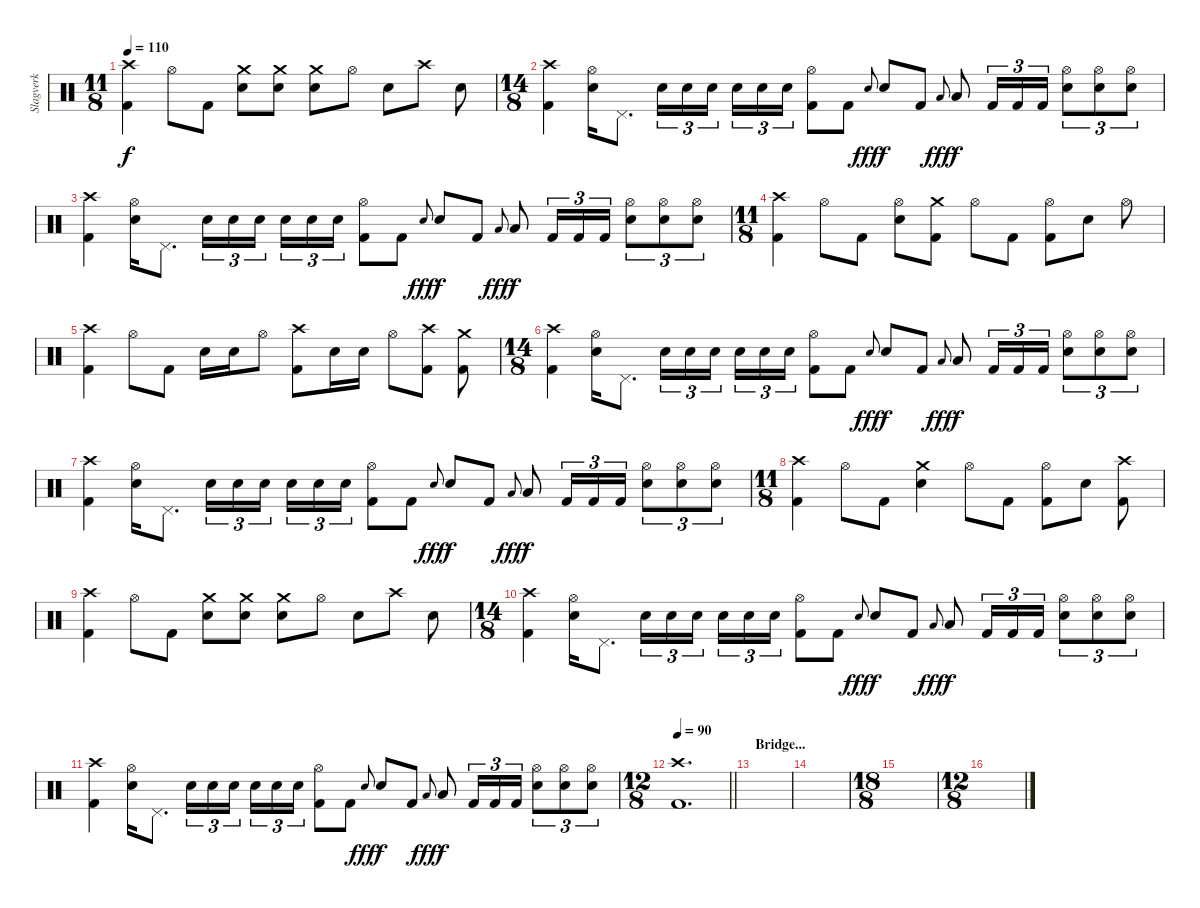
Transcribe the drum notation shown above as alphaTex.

\track ("Slagverk" "Slagverk") {instrument percussion}
\staff {score}
\articulation defaults
\ts (11 8)
\tempo 110
\clef neutral
\ks c
("Kick (hit) 2" "Crash high (hit)").4{dy f} "Hi-Hat (open)".8 "Kick (hit) 2".8 ("Crash medium (hit)" "Snare (hit) 2").8 ("Crash medium (hit)" "Snare (hit) 2").8 ("Crash medium (hit)" "Snare (hit) 2").8 "Hi-Hat (open)".8 "Snare (hit) 2".8 "Crash high (hit)".8 "Snare (hit) 2".8 |
\ts (14 8)
("Crash high (hit)" "Kick (hit) 2").4 ("Snare (hit) 2" "Hi-Hat (open)").16 "Pedal Hi-Hat (hit)".8{d} "Snare (hit) 2".16{tu (3 2)} "Snare (hit) 2".16{tu (3 2)} "Snare (hit) 2".16{tu (3 2)} "Snare (hit) 2".16{tu (3 2)} "Snare (hit) 2".16{tu (3 2)} "Snare (hit) 2".16{tu (3 2)} ("Hi-Hat (open)" "Kick (hit) 2").8 "Kick (hit) 2".8 "Snare (hit) 2".8{gr onbeat dy fff} "Snare (hit) 2".8{dy f} "Kick (hit) 2".8 "Low Tom (hit)".8{gr onbeat dy fff} "Low Tom (hit)".8{dy f} "Kick (hit) 2".16{tu (3 2)} "Kick (hit) 2".16{tu (3 2)} "Kick (hit) 2".16{tu (3 2)} ("Snare (hit) 2" "Hi-Hat (open)").8{tu (3 2)} ("Snare (hit) 2" "Hi-Hat (open)").8{tu (3 2)} ("Snare (hit) 2" "Hi-Hat (open)").8{tu (3 2)} |
("Crash high (hit)" "Kick (hit) 2").4 ("Snare (hit) 2" "Hi-Hat (open)").16 "Pedal Hi-Hat (hit)".8{d} "Snare (hit) 2".16{tu (3 2)} "Snare (hit) 2".16{tu (3 2)} "Snare (hit) 2".16{tu (3 2)} "Snare (hit) 2".16{tu (3 2)} "Snare (hit) 2".16{tu (3 2)} "Snare (hit) 2".16{tu (3 2)} ("Hi-Hat (open)" "Kick (hit) 2").8 "Kick (hit) 2".8 "Snare (hit) 2".8{gr onbeat dy fff} "Snare (hit) 2".8{dy f} "Kick (hit) 2".8 "Low Tom (hit)".8{gr onbeat dy fff} "Low Tom (hit)".8{dy f} "Kick (hit) 2".16{tu (3 2)} "Kick (hit) 2".16{tu (3 2)} "Kick (hit) 2".16{tu (3 2)} ("Snare (hit) 2" "Hi-Hat (open)").8{tu (3 2)} ("Snare (hit) 2" "Hi-Hat (open)").8{tu (3 2)} ("Snare (hit) 2" "Hi-Hat (open)").8{tu (3 2)} |
\ts (11 8)
("Kick (hit) 2" "Crash high (hit)").4 "Hi-Hat (open)".8 "Kick (hit) 2".8 ("Hi-Hat (open)" "Snare (hit) 2").8 ("Crash medium (hit)" "Kick (hit) 2").8 "Hi-Hat (open)".8 "Kick (hit) 2".8 ("Kick (hit) 2" "Hi-Hat (open)").8 "Snare (hit) 2".8 "Hi-Hat (open)".8 |
("Kick (hit) 2" "Crash high (hit)").4 "Hi-Hat (open)".8 "Kick (hit) 2".8 "Snare (hit) 2".16 "Snare (hit) 2".16 "Hi-Hat (open)".8 ("Crash high (hit)" "Kick (hit) 2").8 "Snare (hit) 2".16 "Snare (hit) 2".16 "Hi-Hat (open)".8 ("Kick (hit) 2" "Crash high (hit)").8 ("Kick (hit) 2" "Crash medium (hit)").8 |
\ts (14 8)
("Crash high (hit)" "Kick (hit) 2").4 ("Snare (hit) 2" "Hi-Hat (open)").16 "Pedal Hi-Hat (hit)".8{d} "Snare (hit) 2".16{tu (3 2)} "Snare (hit) 2".16{tu (3 2)} "Snare (hit) 2".16{tu (3 2)} "Snare (hit) 2".16{tu (3 2)} "Snare (hit) 2".16{tu (3 2)} "Snare (hit) 2".16{tu (3 2)} ("Hi-Hat (open)" "Kick (hit) 2").8 "Kick (hit) 2".8 "Snare (hit) 2".8{gr onbeat dy fff} "Snare (hit) 2".8{dy f} "Kick (hit) 2".8 "Low Tom (hit)".8{gr onbeat dy fff} "Low Tom (hit)".8{dy f} "Kick (hit) 2".16{tu (3 2)} "Kick (hit) 2".16{tu (3 2)} "Kick (hit) 2".16{tu (3 2)} ("Snare (hit) 2" "Hi-Hat (open)").8{tu (3 2)} ("Snare (hit) 2" "Hi-Hat (open)").8{tu (3 2)} ("Snare (hit) 2" "Hi-Hat (open)").8{tu (3 2)} |
("Crash high (hit)" "Kick (hit) 2").4 ("Snare (hit) 2" "Hi-Hat (open)").16 "Pedal Hi-Hat (hit)".8{d} "Snare (hit) 2".16{tu (3 2)} "Snare (hit) 2".16{tu (3 2)} "Snare (hit) 2".16{tu (3 2)} "Snare (hit) 2".16{tu (3 2)} "Snare (hit) 2".16{tu (3 2)} "Snare (hit) 2".16{tu (3 2)} ("Hi-Hat (open)" "Kick (hit) 2").8 "Kick (hit) 2".8 "Snare (hit) 2".8{gr onbeat dy fff} "Snare (hit) 2".8{dy f} "Kick (hit) 2".8 "Low Tom (hit)".8{gr onbeat dy fff} "Low Tom (hit)".8{dy f} "Kick (hit) 2".16{tu (3 2)} "Kick (hit) 2".16{tu (3 2)} "Kick (hit) 2".16{tu (3 2)} ("Snare (hit) 2" "Hi-Hat (open)").8{tu (3 2)} ("Snare (hit) 2" "Hi-Hat (open)").8{tu (3 2)} ("Snare (hit) 2" "Hi-Hat (open)").8{tu (3 2)} |
\ts (11 8)
("Kick (hit) 2" "Crash high (hit)").4 "Hi-Hat (open)".8 "Kick (hit) 2".8 ("Crash medium (hit)" "Snare (hit) 2").4 "Hi-Hat (open)".8 "Kick (hit) 2".8 ("Kick (hit) 2" "Hi-Hat (open)").8 "Snare (hit) 2".8 ("Crash high (hit)" "Kick (hit) 2").8 |
("Kick (hit) 2" "Crash high (hit)").4 "Hi-Hat (open)".8 "Kick (hit) 2".8 ("Crash medium (hit)" "Snare (hit) 2").8 ("Crash medium (hit)" "Snare (hit) 2").8 ("Crash medium (hit)" "Snare (hit) 2").8 "Hi-Hat (open)".8 "Snare (hit) 2".8 "Crash high (hit)".8 "Snare (hit) 2".8 |
\ts (14 8)
("Crash high (hit)" "Kick (hit) 2").4 ("Snare (hit) 2" "Hi-Hat (open)").16 "Pedal Hi-Hat (hit)".8{d} "Snare (hit) 2".16{tu (3 2)} "Snare (hit) 2".16{tu (3 2)} "Snare (hit) 2".16{tu (3 2)} "Snare (hit) 2".16{tu (3 2)} "Snare (hit) 2".16{tu (3 2)} "Snare (hit) 2".16{tu (3 2)} ("Hi-Hat (open)" "Kick (hit) 2").8 "Kick (hit) 2".8 "Snare (hit) 2".8{gr onbeat dy fff} "Snare (hit) 2".8{dy f} "Kick (hit) 2".8 "Low Tom (hit)".8{gr onbeat dy fff} "Low Tom (hit)".8{dy f} "Kick (hit) 2".16{tu (3 2)} "Kick (hit) 2".16{tu (3 2)} "Kick (hit) 2".16{tu (3 2)} ("Snare (hit) 2" "Hi-Hat (open)").8{tu (3 2)} ("Snare (hit) 2" "Hi-Hat (open)").8{tu (3 2)} ("Snare (hit) 2" "Hi-Hat (open)").8{tu (3 2)} |
("Crash high (hit)" "Kick (hit) 2").4 ("Snare (hit) 2" "Hi-Hat (open)").16 "Pedal Hi-Hat (hit)".8{d} "Snare (hit) 2".16{tu (3 2)} "Snare (hit) 2".16{tu (3 2)} "Snare (hit) 2".16{tu (3 2)} "Snare (hit) 2".16{tu (3 2)} "Snare (hit) 2".16{tu (3 2)} "Snare (hit) 2".16{tu (3 2)} ("Hi-Hat (open)" "Kick (hit) 2").8 "Kick (hit) 2".8 "Snare (hit) 2".8{gr onbeat dy fff} "Snare (hit) 2".8{dy f} "Kick (hit) 2".8 "Low Tom (hit)".8{gr onbeat dy fff} "Low Tom (hit)".8{dy f} "Kick (hit) 2".16{tu (3 2)} "Kick (hit) 2".16{tu (3 2)} "Kick (hit) 2".16{tu (3 2)} ("Snare (hit) 2" "Hi-Hat (open)").8{tu (3 2)} ("Snare (hit) 2" "Hi-Hat (open)").8{tu (3 2)} ("Snare (hit) 2" "Hi-Hat (open)").8{tu (3 2)} |
\ts (12 8)
\tempo 90
\barLineRight lightlight
("Kick (hit) 2" "Crash high (hit)").1{d} |
\section ("" "Bridge...")
|
|
\ts (18 8)
|
\ts (12 8)
